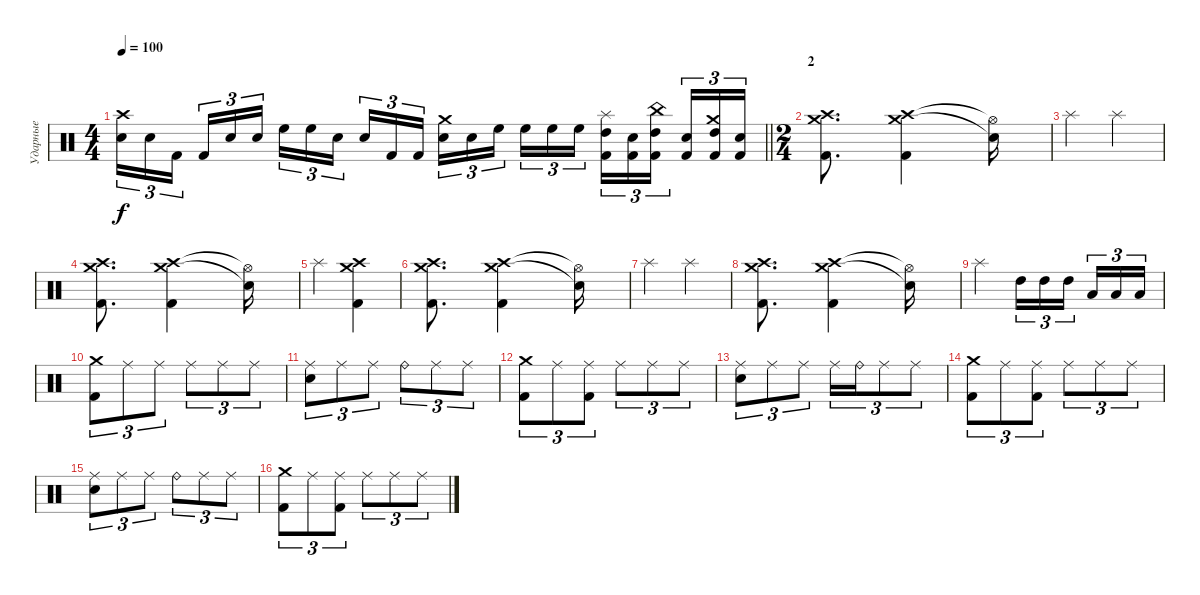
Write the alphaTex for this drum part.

\track ("Ударные" "Ударные") {instrument percussion}
\staff {score}
\articulation defaults
\ts (4 4)
\tempo 100
\clef neutral
\barLineRight lightlight
\ks c
("Crash high (hit)" "Electric Snare (hit)").16{tu (3 2) dy f} "Electric Snare (hit)".16{tu (3 2)} "Kick (hit) 2".16{tu (3 2) beam splitsecondary} "Kick (hit) 2".16{tu (3 2)} "Electric Snare (hit)".16{tu (3 2)} "Electric Snare (hit)".16{tu (3 2)} "High Floor Tom (hit)".16{tu (3 2)} "High Floor Tom (hit)".16{tu (3 2)} "Electric Snare (hit)".16{tu (3 2) beam splitsecondary} "Electric Snare (hit)".16{tu (3 2)} "Kick (hit) 2".16{tu (3 2)} "Kick (hit) 2".16{tu (3 2)} ("Crash medium (hit)" "Electric Snare (hit)").16{tu (3 2)} "Electric Snare (hit)".16{tu (3 2)} "High Floor Tom (hit)".16{tu (3 2) beam splitsecondary} "High Floor Tom (hit)".16{tu (3 2)} "High Floor Tom (hit)".16{tu (3 2)} "High Floor Tom (hit)".16{tu (3 2)} ("Splash (hit)" "High Tom (hit)" "Kick (hit) 2").16{tu (3 2)} ("Electric Snare (hit)" "Kick (hit) 2").16{tu (3 2)} ("China (hit)" "High Tom (hit)" "Kick (hit) 2").16{tu (3 2) beam splitsecondary} ("Electric Snare (hit)" "Kick (hit) 2").16{tu (3 2)} ("Crash medium (hit)" "High Tom (hit)" "Kick (hit) 2").16{tu (3 2)} ("Electric Snare (hit)" "Kick (hit) 2").16{tu (3 2)} |
\ts (2 4)
\section ("" "2")
("Crash high (hit)" "Crash medium (hit)" "Kick (hit) 2").8{d} ("Crash high (hit)" "Crash medium (hit)" "Kick (hit) 2").4 ("Hi-Hat (open)"{t} "Snare (hit)"{t}).16 |
"Splash (hit)".4 "Splash (hit)".4 |
("Crash high (hit)" "Crash medium (hit)" "Kick (hit) 2").8{d} ("Crash high (hit)" "Crash medium (hit)" "Kick (hit) 2").4 ("Hi-Hat (open)"{t} "Snare (hit)"{t}).16 |
"Splash (hit)".4 ("Crash high (hit)" "Crash medium (hit)" "Kick (hit) 2").4 |
("Crash high (hit)" "Crash medium (hit)" "Kick (hit) 2").8{d} ("Crash high (hit)" "Crash medium (hit)" "Kick (hit) 2").4 ("Hi-Hat (open)"{t} "Snare (hit)"{t}).16 |
"Splash (hit)".4 "Splash (hit)".4 |
("Crash high (hit)" "Crash medium (hit)" "Kick (hit) 2").8{d} ("Crash high (hit)" "Crash medium (hit)" "Kick (hit) 2").4 ("Hi-Hat (open)"{t} "Snare (hit)"{t}).16 |
"Splash (hit)".4 "High Tom (hit)".16{tu (3 2)} "High Tom (hit)".16{tu (3 2)} "High Tom (hit)".16{tu (3 2) beam splitsecondary} "Low Tom (hit)".16{tu (3 2)} "Low Tom (hit)".16{tu (3 2)} "Low Tom (hit)".16{tu (3 2)} |
("Crash medium (hit)" "Kick (hit) 2").8{tu (3 2)} "Ride (middle)".8{tu (3 2)} "Ride (middle)".8{tu (3 2)} "Ride (middle)".8{tu (3 2)} "Ride (middle)".8{tu (3 2)} "Ride (middle)".8{tu (3 2)} |
("Ride (middle)" "Electric Snare (hit)").8{tu (3 2)} "Ride (middle)".8{tu (3 2)} "Ride (middle)".8{tu (3 2)} "Ride (bell)".8{tu (3 2)} "Ride (middle)".8{tu (3 2)} "Ride (middle)".8{tu (3 2)} |
("Crash medium (hit)" "Kick (hit) 2").8{tu (3 2)} "Ride (middle)".8{tu (3 2)} ("Ride (middle)" "Kick (hit) 2").8{tu (3 2)} "Ride (middle)".8{tu (3 2)} "Ride (middle)".8{tu (3 2)} "Ride (middle)".8{tu (3 2)} |
("Ride (middle)" "Electric Snare (hit)").8{tu (3 2)} "Ride (middle)".8{tu (3 2)} "Ride (middle)".8{tu (3 2)} "Ride (middle)".16{tu (3 2)} "Ride (bell)".16{tu (3 2)} "Ride (middle)".8{tu (3 2)} "Ride (middle)".8{tu (3 2)} |
("Crash medium (hit)" "Kick (hit) 2").8{tu (3 2)} "Ride (middle)".8{tu (3 2)} ("Ride (middle)" "Kick (hit) 2").8{tu (3 2)} "Ride (middle)".8{tu (3 2)} "Ride (middle)".8{tu (3 2)} "Ride (middle)".8{tu (3 2)} |
("Ride (middle)" "Electric Snare (hit)").8{tu (3 2)} "Ride (middle)".8{tu (3 2)} "Ride (middle)".8{tu (3 2)} "Ride (bell)".8{tu (3 2)} "Ride (middle)".8{tu (3 2)} "Ride (middle)".8{tu (3 2)} |
("Crash medium (hit)" "Kick (hit) 2").8{tu (3 2)} "Ride (middle)".8{tu (3 2)} ("Ride (middle)" "Kick (hit) 2").8{tu (3 2)} "Ride (middle)".8{tu (3 2)} "Ride (middle)".8{tu (3 2)} "Ride (middle)".8{tu (3 2)}
